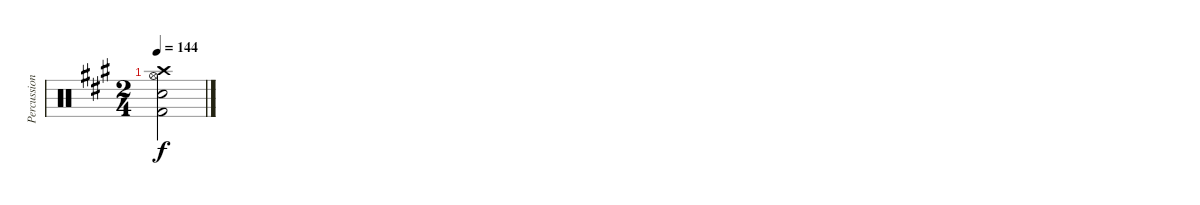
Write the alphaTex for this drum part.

\track ("Percussion" "Percussion") {instrument percussion}
\staff {score}
\articulation defaults
\ts (2 4)
\tempo 144
\clef neutral
\ks a
("Crash high (hit)" "Hi-Hat (open)" "Snare (hit) 2" "Kick (hit) 2").2{dy f}
